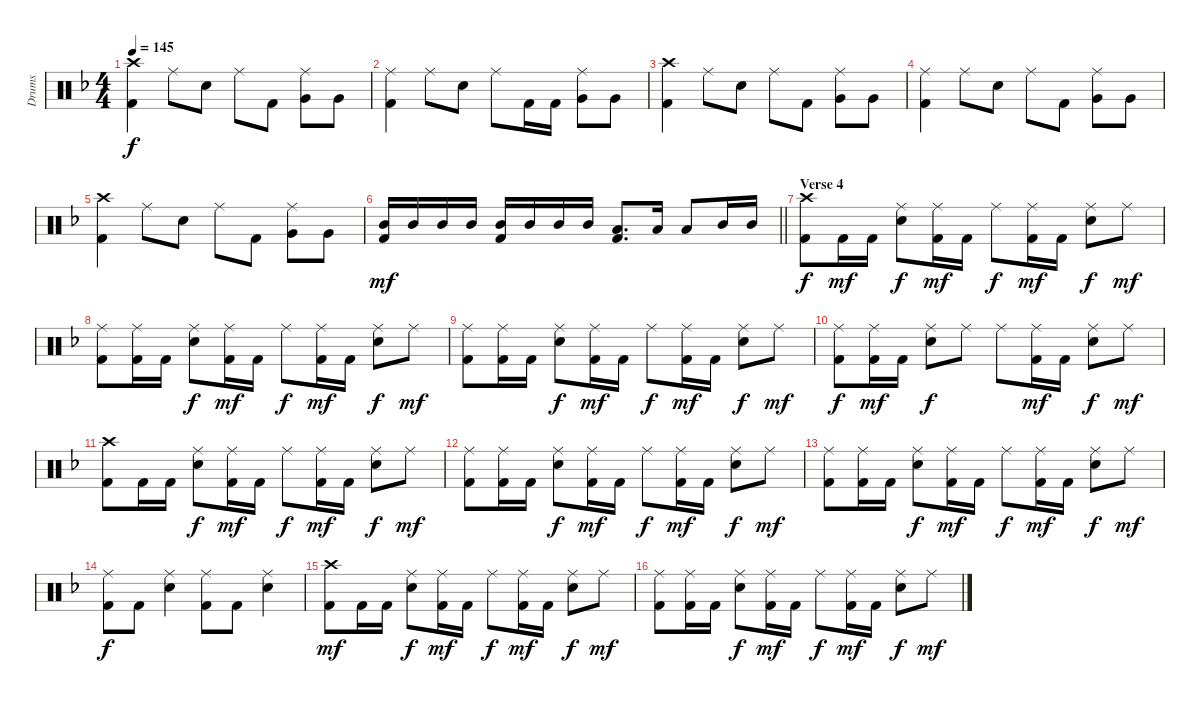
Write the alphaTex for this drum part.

\track ("Drums" "Drums") {instrument percussion}
\staff {score}
\articulation defaults
\ts (4 4)
\tempo 145
\clef neutral
\ks f
("Crash high (hit)" "Kick (hit) 2").4{dy f} "Ride (middle)".8 "Electric Snare (hit)".8 "Ride (middle)".8 "Kick (hit) 2".8 ("Ride (middle)" "Very Low Tom (hit)").8 "Very Low Tom (hit)".8 |
("Ride (middle)" "Kick (hit) 2").4 "Ride (middle)".8 "Electric Snare (hit)".8 "Ride (middle)".8 "Kick (hit) 2".16 "Kick (hit) 2".16 ("Ride (middle)" "Very Low Tom (hit)").8 "Very Low Tom (hit)".8 |
("Crash high (hit)" "Kick (hit) 2").4 "Ride (middle)".8 "Electric Snare (hit)".8 "Ride (middle)".8 "Kick (hit) 2".8 ("Ride (middle)" "Very Low Tom (hit)").8 "Very Low Tom (hit)".8 |
("Ride (middle)" "Kick (hit) 2").4 "Ride (middle)".8 "Electric Snare (hit)".8 "Ride (middle)".8 "Kick (hit) 2".8 ("Ride (middle)" "Very Low Tom (hit)").8 "Very Low Tom (hit)".8 |
("Crash high (hit)" "Kick (hit) 2").4 "Ride (middle)".8 "Electric Snare (hit)".8 "Ride (middle)".8 "Kick (hit) 2".8 ("Ride (middle)" "Very Low Tom (hit)").8 "Very Low Tom (hit)".8 |
\barLineRight lightlight
("Mid Tom (hit)" "Kick (hit) 2").16{dy mf} "Mid Tom (hit)".16 "Mid Tom (hit)".16 "Mid Tom (hit)".16 ("Mid Tom (hit)" "Kick (hit) 2").16 "Mid Tom (hit)".16 "Mid Tom (hit)".16 "Mid Tom (hit)".16 ("Low Tom (hit)" "Kick (hit) 2").8{d} "Low Tom (hit)".16 "Low Tom (hit)".8 "Mid Tom (hit)".16 "Mid Tom (hit)".16 |
\section ("" "Verse 4")
("Crash high (hit)" "Kick (hit) 2").8{dy f} "Kick (hit) 2".16{dy mf} "Kick (hit) 2".16 ("Ride (middle)" "Electric Snare (hit)").8{dy f} ("Ride (middle)" "Kick (hit) 2").16{dy mf} "Kick (hit) 2".16 "Ride (middle)".8{dy f} ("Ride (middle)" "Kick (hit) 2").16{dy mf} "Kick (hit) 2".16 ("Ride (middle)" "Electric Snare (hit)").8{dy f} "Ride (middle)".8{dy mf} |
("Ride (middle)" "Kick (hit) 2").8 ("Ride (middle)" "Kick (hit) 2").16 "Kick (hit) 2".16 ("Ride (middle)" "Electric Snare (hit)").8{dy f} ("Ride (middle)" "Kick (hit) 2").16{dy mf} "Kick (hit) 2".16 "Ride (middle)".8{dy f} ("Ride (middle)" "Kick (hit) 2").16{dy mf} "Kick (hit) 2".16 ("Ride (middle)" "Electric Snare (hit)").8{dy f} "Ride (middle)".8{dy mf} |
("Ride (middle)" "Kick (hit) 2").8 ("Ride (middle)" "Kick (hit) 2").16 "Kick (hit) 2".16 ("Ride (middle)" "Electric Snare (hit)").8{dy f} ("Ride (middle)" "Kick (hit) 2").16{dy mf} "Kick (hit) 2".16 "Ride (middle)".8{dy f} ("Ride (middle)" "Kick (hit) 2").16{dy mf} "Kick (hit) 2".16 ("Ride (middle)" "Electric Snare (hit)").8{dy f} "Ride (middle)".8{dy mf} |
("Ride (middle)" "Kick (hit) 2").8{dy f} ("Ride (middle)" "Kick (hit) 2").16{dy mf} "Kick (hit) 2".16 ("Ride (middle)" "Electric Snare (hit)").8{dy f} "Ride (middle)".8 "Ride (middle)".8 ("Ride (middle)" "Kick (hit) 2").16{dy mf} "Kick (hit) 2".16 ("Ride (middle)" "Electric Snare (hit)").8{dy f} "Ride (middle)".8{dy mf} |
("Crash high (hit)" "Kick (hit) 2").8 "Kick (hit) 2".16 "Kick (hit) 2".16 ("Ride (middle)" "Electric Snare (hit)").8{dy f} ("Ride (middle)" "Kick (hit) 2").16{dy mf} "Kick (hit) 2".16 "Ride (middle)".8{dy f} ("Ride (middle)" "Kick (hit) 2").16{dy mf} "Kick (hit) 2".16 ("Ride (middle)" "Electric Snare (hit)").8{dy f} "Ride (middle)".8{dy mf} |
("Ride (middle)" "Kick (hit) 2").8 ("Ride (middle)" "Kick (hit) 2").16 "Kick (hit) 2".16 ("Ride (middle)" "Electric Snare (hit)").8{dy f} ("Ride (middle)" "Kick (hit) 2").16{dy mf} "Kick (hit) 2".16 "Ride (middle)".8{dy f} ("Ride (middle)" "Kick (hit) 2").16{dy mf} "Kick (hit) 2".16 ("Ride (middle)" "Electric Snare (hit)").8{dy f} "Ride (middle)".8{dy mf} |
("Ride (middle)" "Kick (hit) 2").8 ("Ride (middle)" "Kick (hit) 2").16 "Kick (hit) 2".16 ("Ride (middle)" "Electric Snare (hit)").8{dy f} ("Ride (middle)" "Kick (hit) 2").16{dy mf} "Kick (hit) 2".16 "Ride (middle)".8{dy f} ("Ride (middle)" "Kick (hit) 2").16{dy mf} "Kick (hit) 2".16 ("Ride (middle)" "Electric Snare (hit)").8{dy f} "Ride (middle)".8{dy mf} |
("Ride (middle)" "Kick (hit) 2").8{dy f} "Kick (hit) 2".8 ("Ride (middle)" "Electric Snare (hit)").4 ("Ride (middle)" "Kick (hit) 2").8 "Kick (hit) 2".8 ("Ride (middle)" "Electric Snare (hit)").4 |
("Crash high (hit)" "Kick (hit) 2").8{dy mf} "Kick (hit) 2".16 "Kick (hit) 2".16 ("Ride (middle)" "Electric Snare (hit)").8{dy f} ("Ride (middle)" "Kick (hit) 2").16{dy mf} "Kick (hit) 2".16 "Ride (middle)".8{dy f} ("Ride (middle)" "Kick (hit) 2").16{dy mf} "Kick (hit) 2".16 ("Ride (middle)" "Electric Snare (hit)").8{dy f} "Ride (middle)".8{dy mf} |
("Ride (middle)" "Kick (hit) 2").8 ("Ride (middle)" "Kick (hit) 2").16 "Kick (hit) 2".16 ("Ride (middle)" "Electric Snare (hit)").8{dy f} ("Ride (middle)" "Kick (hit) 2").16{dy mf} "Kick (hit) 2".16 "Ride (middle)".8{dy f} ("Ride (middle)" "Kick (hit) 2").16{dy mf} "Kick (hit) 2".16 ("Ride (middle)" "Electric Snare (hit)").8{dy f} "Ride (middle)".8{dy mf}
